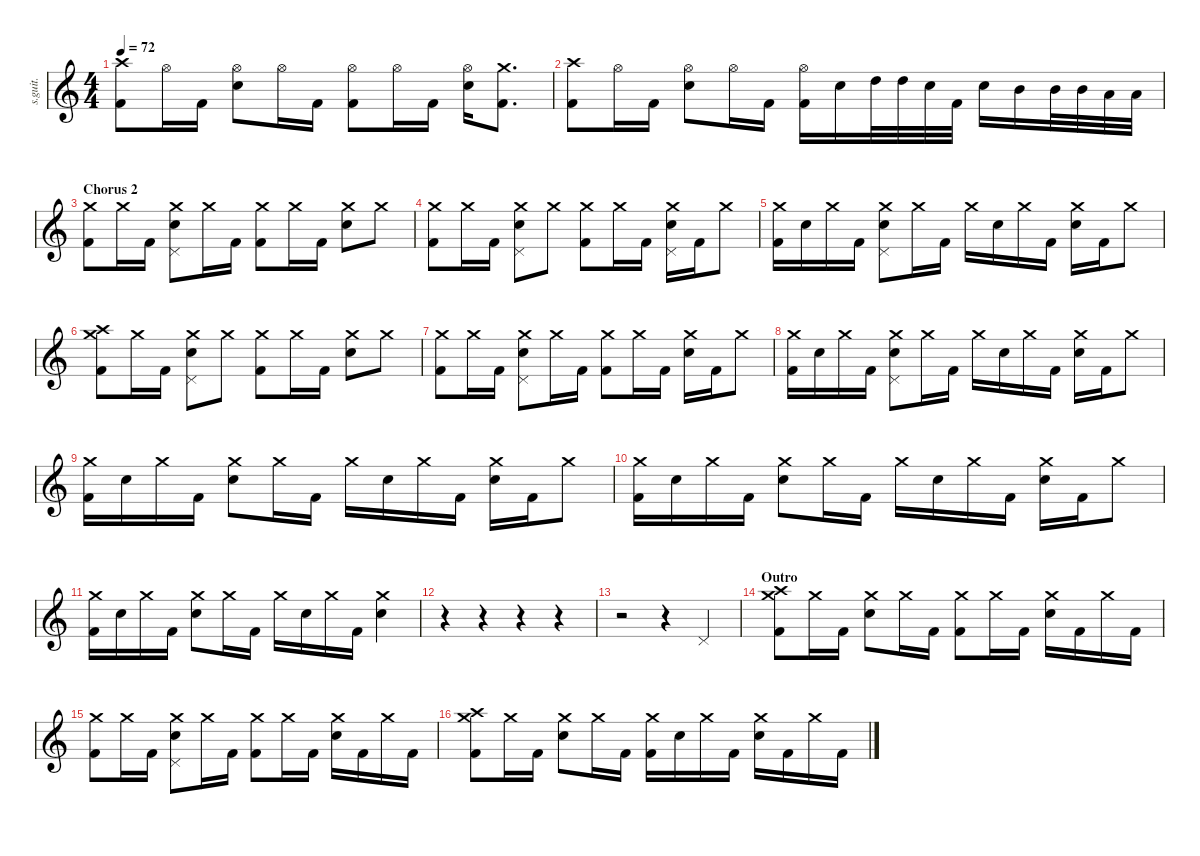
\defaultSystemsLayout 4
\hideDynamics
\bracketExtendMode nobrackets
\track ("Abe Cunningham" "s.guit.") {instrument percussion}
\staff {score}
\articulation defaults
\ts (4 4)
\tempo 72
\clef g2
\ks c
("Kick (hit) 2" "Crash high (hit)").8{lyrics (0 "") lyrics (1 "") lyrics (2 "") lyrics (3 "") lyrics (4 "") dy fff} "Hi-Hat (open)".16{lyrics (0 "") lyrics (1 "") lyrics (2 "") lyrics (3 "") lyrics (4 "")} "Kick (hit) 2".16{lyrics (0 "") lyrics (1 "") lyrics (2 "") lyrics (3 "") lyrics (4 "")} ("Hi-Hat (open)" "Snare (hit) 2").8{lyrics (0 "") lyrics (1 "") lyrics (2 "") lyrics (3 "") lyrics (4 "")} "Hi-Hat (open)".16{lyrics (0 "") lyrics (1 "") lyrics (2 "") lyrics (3 "") lyrics (4 "")} "Kick (hit) 2".16{lyrics (0 "") lyrics (1 "") lyrics (2 "") lyrics (3 "") lyrics (4 "")} ("Hi-Hat (open)" "Kick (hit) 2").8{lyrics (0 "") lyrics (1 "") lyrics (2 "") lyrics (3 "") lyrics (4 "")} "Hi-Hat (open)".16{lyrics (0 "") lyrics (1 "") lyrics (2 "") lyrics (3 "") lyrics (4 "")} "Kick (hit) 2".16{lyrics (0 "") lyrics (1 "") lyrics (2 "") lyrics (3 "") lyrics (4 "")} ("Hi-Hat (open)" "Snare (hit) 2").16{lyrics (0 "") lyrics (1 "") lyrics (2 "") lyrics (3 "") lyrics (4 "")} ("Kick (hit) 2" "Crash medium (hit)").8{d lyrics (0 "") lyrics (1 "") lyrics (2 "") lyrics (3 "") lyrics (4 "")} |
("Kick (hit) 2" "Crash high (hit)").8{lyrics (0 "") lyrics (1 "") lyrics (2 "") lyrics (3 "") lyrics (4 "")} "Hi-Hat (open)".16{lyrics (0 "") lyrics (1 "") lyrics (2 "") lyrics (3 "") lyrics (4 "")} "Kick (hit) 2".16{lyrics (0 "") lyrics (1 "") lyrics (2 "") lyrics (3 "") lyrics (4 "")} ("Hi-Hat (open)" "Snare (hit) 2").8{lyrics (0 "") lyrics (1 "") lyrics (2 "") lyrics (3 "") lyrics (4 "")} "Hi-Hat (open)".16{lyrics (0 "") lyrics (1 "") lyrics (2 "") lyrics (3 "") lyrics (4 "")} "Kick (hit) 2".16{lyrics (0 "") lyrics (1 "") lyrics (2 "") lyrics (3 "") lyrics (4 "")} ("Hi-Hat (open)" "Kick (hit) 2").16{lyrics (0 "") lyrics (1 "") lyrics (2 "") lyrics (3 "") lyrics (4 "")} "Snare (hit) 2".16{lyrics (0 "") lyrics (1 "") lyrics (2 "") lyrics (3 "") lyrics (4 "")} "High Tom (hit)".32{lyrics (0 "") lyrics (1 "") lyrics (2 "") lyrics (3 "") lyrics (4 "")} "High Tom (hit)".32{lyrics (0 "") lyrics (1 "") lyrics (2 "") lyrics (3 "") lyrics (4 "")} "Snare (hit) 2".32{lyrics (0 "") lyrics (1 "") lyrics (2 "") lyrics (3 "") lyrics (4 "")} "Kick (hit) 2".32{lyrics (0 "") lyrics (1 "") lyrics (2 "") lyrics (3 "") lyrics (4 "")} "Snare (hit) 2".16{lyrics (0 "") lyrics (1 "") lyrics (2 "") lyrics (3 "") lyrics (4 "")} "Mid Tom (hit)".16{lyrics (0 "") lyrics (1 "") lyrics (2 "") lyrics (3 "") lyrics (4 "")} "Mid Tom (hit)".32{lyrics (0 "") lyrics (1 "") lyrics (2 "") lyrics (3 "") lyrics (4 "")} "Mid Tom (hit)".32{lyrics (0 "") lyrics (1 "") lyrics (2 "") lyrics (3 "") lyrics (4 "")} "Low Floor Tom (hit)".32{lyrics (0 "") lyrics (1 "") lyrics (2 "") lyrics (3 "") lyrics (4 "")} "Low Floor Tom (hit)".32{lyrics (0 "") lyrics (1 "") lyrics (2 "") lyrics (3 "") lyrics (4 "")} |
\section ("" "Chorus 2")
("Crash medium (hit)" "Kick (hit) 2").8{lyrics (0 "") lyrics (1 "") lyrics (2 "") lyrics (3 "") lyrics (4 "")} "Crash medium (hit)".16{lyrics (0 "") lyrics (1 "") lyrics (2 "") lyrics (3 "") lyrics (4 "")} "Kick (hit) 2".16{lyrics (0 "") lyrics (1 "") lyrics (2 "") lyrics (3 "") lyrics (4 "")} ("Crash medium (hit)" "Snare (hit) 2" "Pedal Hi-Hat (hit)").8{lyrics (0 "") lyrics (1 "") lyrics (2 "") lyrics (3 "") lyrics (4 "")} "Crash medium (hit)".16{lyrics (0 "") lyrics (1 "") lyrics (2 "") lyrics (3 "") lyrics (4 "")} "Kick (hit) 2".16{lyrics (0 "") lyrics (1 "") lyrics (2 "") lyrics (3 "") lyrics (4 "")} ("Crash medium (hit)" "Kick (hit) 2").8{lyrics (0 "") lyrics (1 "") lyrics (2 "") lyrics (3 "") lyrics (4 "")} "Crash medium (hit)".16{lyrics (0 "") lyrics (1 "") lyrics (2 "") lyrics (3 "") lyrics (4 "")} "Kick (hit) 2".16{lyrics (0 "") lyrics (1 "") lyrics (2 "") lyrics (3 "") lyrics (4 "")} ("Crash medium (hit)" "Snare (hit) 2").8{lyrics (0 "") lyrics (1 "") lyrics (2 "") lyrics (3 "") lyrics (4 "")} "Crash medium (hit)".8{lyrics (0 "") lyrics (1 "") lyrics (2 "") lyrics (3 "") lyrics (4 "")} |
("Crash medium (hit)" "Kick (hit) 2").8{lyrics (0 "") lyrics (1 "") lyrics (2 "") lyrics (3 "") lyrics (4 "")} "Crash medium (hit)".16{lyrics (0 "") lyrics (1 "") lyrics (2 "") lyrics (3 "") lyrics (4 "")} "Kick (hit) 2".16{lyrics (0 "") lyrics (1 "") lyrics (2 "") lyrics (3 "") lyrics (4 "")} ("Crash medium (hit)" "Snare (hit) 2" "Pedal Hi-Hat (hit)").8{lyrics (0 "") lyrics (1 "") lyrics (2 "") lyrics (3 "") lyrics (4 "")} "Crash medium (hit)".8{lyrics (0 "") lyrics (1 "") lyrics (2 "") lyrics (3 "") lyrics (4 "")} ("Crash medium (hit)" "Kick (hit) 2").8{lyrics (0 "") lyrics (1 "") lyrics (2 "") lyrics (3 "") lyrics (4 "")} "Crash medium (hit)".16{lyrics (0 "") lyrics (1 "") lyrics (2 "") lyrics (3 "") lyrics (4 "")} "Kick (hit) 2".16{lyrics (0 "") lyrics (1 "") lyrics (2 "") lyrics (3 "") lyrics (4 "")} ("Crash medium (hit)" "Snare (hit) 2" "Pedal Hi-Hat (hit)").16{lyrics (0 "") lyrics (1 "") lyrics (2 "") lyrics (3 "") lyrics (4 "")} "Kick (hit) 2".16{lyrics (0 "") lyrics (1 "") lyrics (2 "") lyrics (3 "") lyrics (4 "")} "Crash medium (hit)".8{lyrics (0 "") lyrics (1 "") lyrics (2 "") lyrics (3 "") lyrics (4 "")} |
("Crash medium (hit)" "Kick (hit) 2").16{lyrics (0 "") lyrics (1 "") lyrics (2 "") lyrics (3 "") lyrics (4 "")} "Snare (hit) 2".16{lyrics (0 "") lyrics (1 "") lyrics (2 "") lyrics (3 "") lyrics (4 "")} "Crash medium (hit)".16{lyrics (0 "") lyrics (1 "") lyrics (2 "") lyrics (3 "") lyrics (4 "")} "Kick (hit) 2".16{lyrics (0 "") lyrics (1 "") lyrics (2 "") lyrics (3 "") lyrics (4 "")} ("Crash medium (hit)" "Snare (hit) 2" "Pedal Hi-Hat (hit)").8{lyrics (0 "") lyrics (1 "") lyrics (2 "") lyrics (3 "") lyrics (4 "")} "Crash medium (hit)".16{lyrics (0 "") lyrics (1 "") lyrics (2 "") lyrics (3 "") lyrics (4 "")} "Kick (hit) 2".16{lyrics (0 "") lyrics (1 "") lyrics (2 "") lyrics (3 "") lyrics (4 "")} "Crash medium (hit)".16{lyrics (0 "") lyrics (1 "") lyrics (2 "") lyrics (3 "") lyrics (4 "")} "Snare (hit) 2".16{lyrics (0 "") lyrics (1 "") lyrics (2 "") lyrics (3 "") lyrics (4 "")} "Crash medium (hit)".16{lyrics (0 "") lyrics (1 "") lyrics (2 "") lyrics (3 "") lyrics (4 "")} "Kick (hit) 2".16{lyrics (0 "") lyrics (1 "") lyrics (2 "") lyrics (3 "") lyrics (4 "")} ("Crash medium (hit)" "Snare (hit) 2").16{lyrics (0 "") lyrics (1 "") lyrics (2 "") lyrics (3 "") lyrics (4 "")} "Kick (hit) 2".16{lyrics (0 "") lyrics (1 "") lyrics (2 "") lyrics (3 "") lyrics (4 "")} "Crash medium (hit)".8{lyrics (0 "") lyrics (1 "") lyrics (2 "") lyrics (3 "") lyrics (4 "")} |
("Kick (hit) 2" "Crash high (hit)" "Crash medium (hit)").8{lyrics (0 "") lyrics (1 "") lyrics (2 "") lyrics (3 "") lyrics (4 "")} "Crash medium (hit)".16{lyrics (0 "") lyrics (1 "") lyrics (2 "") lyrics (3 "") lyrics (4 "")} "Kick (hit) 2".16{lyrics (0 "") lyrics (1 "") lyrics (2 "") lyrics (3 "") lyrics (4 "")} ("Crash medium (hit)" "Snare (hit) 2" "Pedal Hi-Hat (hit)").8{lyrics (0 "") lyrics (1 "") lyrics (2 "") lyrics (3 "") lyrics (4 "")} "Crash medium (hit)".8{lyrics (0 "") lyrics (1 "") lyrics (2 "") lyrics (3 "") lyrics (4 "")} ("Crash medium (hit)" "Kick (hit) 2").8{lyrics (0 "") lyrics (1 "") lyrics (2 "") lyrics (3 "") lyrics (4 "")} "Crash medium (hit)".16{lyrics (0 "") lyrics (1 "") lyrics (2 "") lyrics (3 "") lyrics (4 "")} "Kick (hit) 2".16{lyrics (0 "") lyrics (1 "") lyrics (2 "") lyrics (3 "") lyrics (4 "")} ("Crash medium (hit)" "Snare (hit) 2").8{lyrics (0 "") lyrics (1 "") lyrics (2 "") lyrics (3 "") lyrics (4 "")} "Crash medium (hit)".8{lyrics (0 "") lyrics (1 "") lyrics (2 "") lyrics (3 "") lyrics (4 "")} |
("Crash medium (hit)" "Kick (hit) 2").8{lyrics (0 "") lyrics (1 "") lyrics (2 "") lyrics (3 "") lyrics (4 "")} "Crash medium (hit)".16{lyrics (0 "") lyrics (1 "") lyrics (2 "") lyrics (3 "") lyrics (4 "")} "Kick (hit) 2".16{lyrics (0 "") lyrics (1 "") lyrics (2 "") lyrics (3 "") lyrics (4 "")} ("Crash medium (hit)" "Snare (hit) 2" "Pedal Hi-Hat (hit)").8{lyrics (0 "") lyrics (1 "") lyrics (2 "") lyrics (3 "") lyrics (4 "")} "Crash medium (hit)".16{lyrics (0 "") lyrics (1 "") lyrics (2 "") lyrics (3 "") lyrics (4 "")} "Kick (hit) 2".16{lyrics (0 "") lyrics (1 "") lyrics (2 "") lyrics (3 "") lyrics (4 "")} ("Crash medium (hit)" "Kick (hit) 2").8{lyrics (0 "") lyrics (1 "") lyrics (2 "") lyrics (3 "") lyrics (4 "")} "Crash medium (hit)".16{lyrics (0 "") lyrics (1 "") lyrics (2 "") lyrics (3 "") lyrics (4 "")} "Kick (hit) 2".16{lyrics (0 "") lyrics (1 "") lyrics (2 "") lyrics (3 "") lyrics (4 "")} ("Crash medium (hit)" "Snare (hit) 2").16{lyrics (0 "") lyrics (1 "") lyrics (2 "") lyrics (3 "") lyrics (4 "")} "Kick (hit) 2".16{lyrics (0 "") lyrics (1 "") lyrics (2 "") lyrics (3 "") lyrics (4 "")} "Crash medium (hit)".8{lyrics (0 "") lyrics (1 "") lyrics (2 "") lyrics (3 "") lyrics (4 "")} |
("Crash medium (hit)" "Kick (hit) 2").16{lyrics (0 "") lyrics (1 "") lyrics (2 "") lyrics (3 "") lyrics (4 "")} "Snare (hit) 2".16{lyrics (0 "") lyrics (1 "") lyrics (2 "") lyrics (3 "") lyrics (4 "")} "Crash medium (hit)".16{lyrics (0 "") lyrics (1 "") lyrics (2 "") lyrics (3 "") lyrics (4 "")} "Kick (hit) 2".16{lyrics (0 "") lyrics (1 "") lyrics (2 "") lyrics (3 "") lyrics (4 "")} ("Crash medium (hit)" "Snare (hit) 2" "Pedal Hi-Hat (hit)").8{lyrics (0 "") lyrics (1 "") lyrics (2 "") lyrics (3 "") lyrics (4 "")} "Crash medium (hit)".16{lyrics (0 "") lyrics (1 "") lyrics (2 "") lyrics (3 "") lyrics (4 "")} "Kick (hit) 2".16{lyrics (0 "") lyrics (1 "") lyrics (2 "") lyrics (3 "") lyrics (4 "")} "Crash medium (hit)".16{lyrics (0 "") lyrics (1 "") lyrics (2 "") lyrics (3 "") lyrics (4 "")} "Snare (hit) 2".16{lyrics (0 "") lyrics (1 "") lyrics (2 "") lyrics (3 "") lyrics (4 "")} "Crash medium (hit)".16{lyrics (0 "") lyrics (1 "") lyrics (2 "") lyrics (3 "") lyrics (4 "")} "Kick (hit) 2".16{lyrics (0 "") lyrics (1 "") lyrics (2 "") lyrics (3 "") lyrics (4 "")} ("Crash medium (hit)" "Snare (hit) 2").16{lyrics (0 "") lyrics (1 "") lyrics (2 "") lyrics (3 "") lyrics (4 "")} "Kick (hit) 2".16{lyrics (0 "") lyrics (1 "") lyrics (2 "") lyrics (3 "") lyrics (4 "")} "Crash medium (hit)".8{lyrics (0 "") lyrics (1 "") lyrics (2 "") lyrics (3 "") lyrics (4 "")} |
("Crash medium (hit)" "Kick (hit) 2").16{lyrics (0 "") lyrics (1 "") lyrics (2 "") lyrics (3 "") lyrics (4 "")} "Snare (hit) 2".16{lyrics (0 "") lyrics (1 "") lyrics (2 "") lyrics (3 "") lyrics (4 "")} "Crash medium (hit)".16{lyrics (0 "") lyrics (1 "") lyrics (2 "") lyrics (3 "") lyrics (4 "")} "Kick (hit) 2".16{lyrics (0 "") lyrics (1 "") lyrics (2 "") lyrics (3 "") lyrics (4 "")} ("Crash medium (hit)" "Snare (hit) 2").8{lyrics (0 "") lyrics (1 "") lyrics (2 "") lyrics (3 "") lyrics (4 "")} "Crash medium (hit)".16{lyrics (0 "") lyrics (1 "") lyrics (2 "") lyrics (3 "") lyrics (4 "")} "Kick (hit) 2".16{lyrics (0 "") lyrics (1 "") lyrics (2 "") lyrics (3 "") lyrics (4 "")} "Crash medium (hit)".16{lyrics (0 "") lyrics (1 "") lyrics (2 "") lyrics (3 "") lyrics (4 "")} "Snare (hit) 2".16{lyrics (0 "") lyrics (1 "") lyrics (2 "") lyrics (3 "") lyrics (4 "")} "Crash medium (hit)".16{lyrics (0 "") lyrics (1 "") lyrics (2 "") lyrics (3 "") lyrics (4 "")} "Kick (hit) 2".16{lyrics (0 "") lyrics (1 "") lyrics (2 "") lyrics (3 "") lyrics (4 "")} ("Crash medium (hit)" "Snare (hit) 2").16{lyrics (0 "") lyrics (1 "") lyrics (2 "") lyrics (3 "") lyrics (4 "")} "Kick (hit) 2".16{lyrics (0 "") lyrics (1 "") lyrics (2 "") lyrics (3 "") lyrics (4 "")} "Crash medium (hit)".8{lyrics (0 "") lyrics (1 "") lyrics (2 "") lyrics (3 "") lyrics (4 "")} |
("Crash medium (hit)" "Kick (hit) 2").16{lyrics (0 "") lyrics (1 "") lyrics (2 "") lyrics (3 "") lyrics (4 "")} "Snare (hit) 2".16{lyrics (0 "") lyrics (1 "") lyrics (2 "") lyrics (3 "") lyrics (4 "")} "Crash medium (hit)".16{lyrics (0 "") lyrics (1 "") lyrics (2 "") lyrics (3 "") lyrics (4 "")} "Kick (hit) 2".16{lyrics (0 "") lyrics (1 "") lyrics (2 "") lyrics (3 "") lyrics (4 "")} ("Crash medium (hit)" "Snare (hit) 2").8{lyrics (0 "") lyrics (1 "") lyrics (2 "") lyrics (3 "") lyrics (4 "")} "Crash medium (hit)".16{lyrics (0 "") lyrics (1 "") lyrics (2 "") lyrics (3 "") lyrics (4 "")} "Kick (hit) 2".16{lyrics (0 "") lyrics (1 "") lyrics (2 "") lyrics (3 "") lyrics (4 "")} "Crash medium (hit)".16{lyrics (0 "") lyrics (1 "") lyrics (2 "") lyrics (3 "") lyrics (4 "")} "Snare (hit) 2".16{lyrics (0 "") lyrics (1 "") lyrics (2 "") lyrics (3 "") lyrics (4 "")} "Crash medium (hit)".16{lyrics (0 "") lyrics (1 "") lyrics (2 "") lyrics (3 "") lyrics (4 "")} "Kick (hit) 2".16{lyrics (0 "") lyrics (1 "") lyrics (2 "") lyrics (3 "") lyrics (4 "")} ("Crash medium (hit)" "Snare (hit) 2").16{lyrics (0 "") lyrics (1 "") lyrics (2 "") lyrics (3 "") lyrics (4 "")} "Kick (hit) 2".16{lyrics (0 "") lyrics (1 "") lyrics (2 "") lyrics (3 "") lyrics (4 "")} "Crash medium (hit)".8{lyrics (0 "") lyrics (1 "") lyrics (2 "") lyrics (3 "") lyrics (4 "")} |
("Crash medium (hit)" "Kick (hit) 2").16{lyrics (0 "") lyrics (1 "") lyrics (2 "") lyrics (3 "") lyrics (4 "")} "Snare (hit) 2".16{lyrics (0 "") lyrics (1 "") lyrics (2 "") lyrics (3 "") lyrics (4 "")} "Crash medium (hit)".16{lyrics (0 "") lyrics (1 "") lyrics (2 "") lyrics (3 "") lyrics (4 "")} "Kick (hit) 2".16{lyrics (0 "") lyrics (1 "") lyrics (2 "") lyrics (3 "") lyrics (4 "")} ("Crash medium (hit)" "Snare (hit) 2").8{lyrics (0 "") lyrics (1 "") lyrics (2 "") lyrics (3 "") lyrics (4 "")} "Crash medium (hit)".16{lyrics (0 "") lyrics (1 "") lyrics (2 "") lyrics (3 "") lyrics (4 "")} "Kick (hit) 2".16{lyrics (0 "") lyrics (1 "") lyrics (2 "") lyrics (3 "") lyrics (4 "")} "Crash medium (hit)".16{lyrics (0 "") lyrics (1 "") lyrics (2 "") lyrics (3 "") lyrics (4 "")} "Snare (hit) 2".16{lyrics (0 "") lyrics (1 "") lyrics (2 "") lyrics (3 "") lyrics (4 "")} "Crash medium (hit)".16{lyrics (0 "") lyrics (1 "") lyrics (2 "") lyrics (3 "") lyrics (4 "")} "Kick (hit) 2".16{lyrics (0 "") lyrics (1 "") lyrics (2 "") lyrics (3 "") lyrics (4 "")} ("Snare (hit) 2" "Crash medium (hit)").4{lyrics (0 "") lyrics (1 "") lyrics (2 "") lyrics (3 "") lyrics (4 "")} |
r.4 r.4 r.4 r.4 |
r.2 r.4 "Pedal Hi-Hat (hit)".4{lyrics (0 "") lyrics (1 "") lyrics (2 "") lyrics (3 "") lyrics (4 "")} |
\section ("" "Outro")
("Kick (hit) 2" "Crash high (hit)" "Crash medium (hit)").8{lyrics (0 "") lyrics (1 "") lyrics (2 "") lyrics (3 "") lyrics (4 "")} "Crash medium (hit)".16{lyrics (0 "") lyrics (1 "") lyrics (2 "") lyrics (3 "") lyrics (4 "")} "Kick (hit) 2".16{lyrics (0 "") lyrics (1 "") lyrics (2 "") lyrics (3 "") lyrics (4 "")} ("Crash medium (hit)" "Snare (hit) 2").8{lyrics (0 "") lyrics (1 "") lyrics (2 "") lyrics (3 "") lyrics (4 "")} "Crash medium (hit)".16{lyrics (0 "") lyrics (1 "") lyrics (2 "") lyrics (3 "") lyrics (4 "")} "Kick (hit) 2".16{lyrics (0 "") lyrics (1 "") lyrics (2 "") lyrics (3 "") lyrics (4 "")} ("Crash medium (hit)" "Kick (hit) 2").8{lyrics (0 "") lyrics (1 "") lyrics (2 "") lyrics (3 "") lyrics (4 "")} "Crash medium (hit)".16{lyrics (0 "") lyrics (1 "") lyrics (2 "") lyrics (3 "") lyrics (4 "")} "Kick (hit) 2".16{lyrics (0 "") lyrics (1 "") lyrics (2 "") lyrics (3 "") lyrics (4 "")} ("Crash medium (hit)" "Snare (hit) 2").16{lyrics (0 "") lyrics (1 "") lyrics (2 "") lyrics (3 "") lyrics (4 "")} "Kick (hit) 2".16{lyrics (0 "") lyrics (1 "") lyrics (2 "") lyrics (3 "") lyrics (4 "")} "Crash medium (hit)".16{lyrics (0 "") lyrics (1 "") lyrics (2 "") lyrics (3 "") lyrics (4 "")} "Kick (hit) 2".16{lyrics (0 "") lyrics (1 "") lyrics (2 "") lyrics (3 "") lyrics (4 "")} |
("Crash medium (hit)" "Kick (hit) 2").8{lyrics (0 "") lyrics (1 "") lyrics (2 "") lyrics (3 "") lyrics (4 "")} "Crash medium (hit)".16{lyrics (0 "") lyrics (1 "") lyrics (2 "") lyrics (3 "") lyrics (4 "")} "Kick (hit) 2".16{lyrics (0 "") lyrics (1 "") lyrics (2 "") lyrics (3 "") lyrics (4 "")} ("Crash medium (hit)" "Snare (hit) 2" "Pedal Hi-Hat (hit)").8{lyrics (0 "") lyrics (1 "") lyrics (2 "") lyrics (3 "") lyrics (4 "")} "Crash medium (hit)".16{lyrics (0 "") lyrics (1 "") lyrics (2 "") lyrics (3 "") lyrics (4 "")} "Kick (hit) 2".16{lyrics (0 "") lyrics (1 "") lyrics (2 "") lyrics (3 "") lyrics (4 "")} ("Crash medium (hit)" "Kick (hit) 2").8{lyrics (0 "") lyrics (1 "") lyrics (2 "") lyrics (3 "") lyrics (4 "")} "Crash medium (hit)".16{lyrics (0 "") lyrics (1 "") lyrics (2 "") lyrics (3 "") lyrics (4 "")} "Kick (hit) 2".16{lyrics (0 "") lyrics (1 "") lyrics (2 "") lyrics (3 "") lyrics (4 "")} ("Crash medium (hit)" "Snare (hit) 2").16{lyrics (0 "") lyrics (1 "") lyrics (2 "") lyrics (3 "") lyrics (4 "")} "Kick (hit) 2".16{lyrics (0 "") lyrics (1 "") lyrics (2 "") lyrics (3 "") lyrics (4 "")} "Crash medium (hit)".16{lyrics (0 "") lyrics (1 "") lyrics (2 "") lyrics (3 "") lyrics (4 "")} "Kick (hit) 2".16{lyrics (0 "") lyrics (1 "") lyrics (2 "") lyrics (3 "") lyrics (4 "")} |
("Kick (hit) 2" "Crash high (hit)" "Crash medium (hit)").8{lyrics (0 "") lyrics (1 "") lyrics (2 "") lyrics (3 "") lyrics (4 "")} "Crash medium (hit)".16{lyrics (0 "") lyrics (1 "") lyrics (2 "") lyrics (3 "") lyrics (4 "")} "Kick (hit) 2".16{lyrics (0 "") lyrics (1 "") lyrics (2 "") lyrics (3 "") lyrics (4 "")} ("Crash medium (hit)" "Snare (hit) 2").8{lyrics (0 "") lyrics (1 "") lyrics (2 "") lyrics (3 "") lyrics (4 "")} "Crash medium (hit)".16{lyrics (0 "") lyrics (1 "") lyrics (2 "") lyrics (3 "") lyrics (4 "")} "Kick (hit) 2".16{lyrics (0 "") lyrics (1 "") lyrics (2 "") lyrics (3 "") lyrics (4 "")} ("Crash medium (hit)" "Kick (hit) 2").16{lyrics (0 "") lyrics (1 "") lyrics (2 "") lyrics (3 "") lyrics (4 "")} "Snare (hit) 2".16{lyrics (0 "") lyrics (1 "") lyrics (2 "") lyrics (3 "") lyrics (4 "")} "Crash medium (hit)".16{lyrics (0 "") lyrics (1 "") lyrics (2 "") lyrics (3 "") lyrics (4 "")} "Kick (hit) 2".16{lyrics (0 "") lyrics (1 "") lyrics (2 "") lyrics (3 "") lyrics (4 "")} ("Crash medium (hit)" "Snare (hit) 2").16{lyrics (0 "") lyrics (1 "") lyrics (2 "") lyrics (3 "") lyrics (4 "")} "Kick (hit) 2".16{lyrics (0 "") lyrics (1 "") lyrics (2 "") lyrics (3 "") lyrics (4 "")} "Crash medium (hit)".16{lyrics (0 "") lyrics (1 "") lyrics (2 "") lyrics (3 "") lyrics (4 "")} "Kick (hit) 2".16{lyrics (0 "") lyrics (1 "") lyrics (2 "") lyrics (3 "") lyrics (4 "")}
